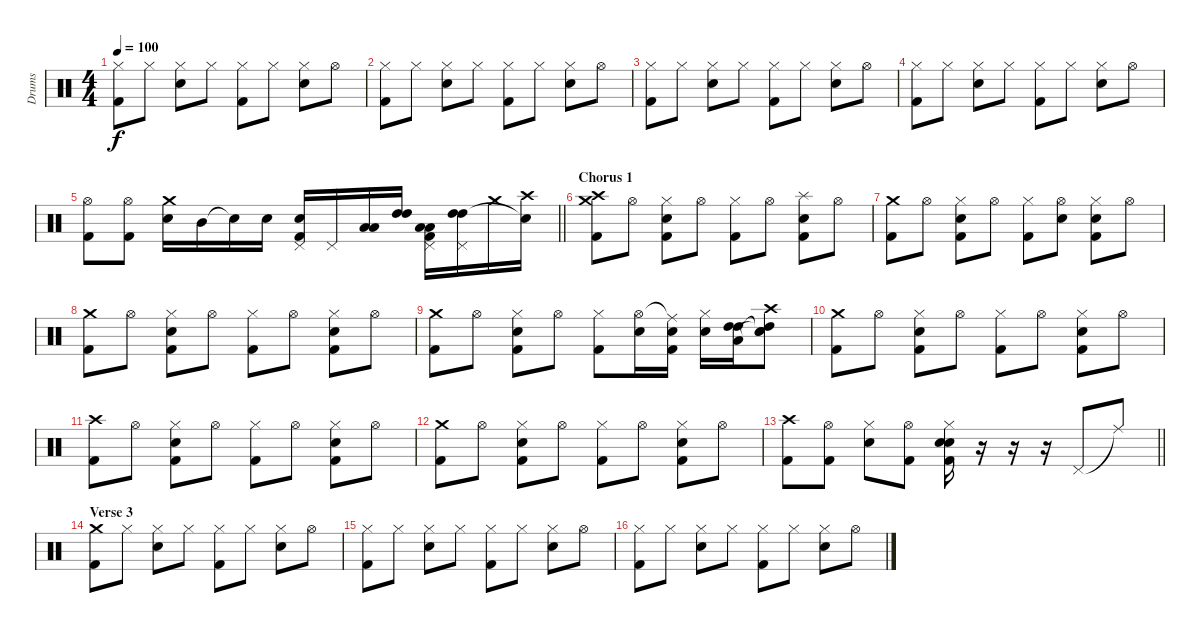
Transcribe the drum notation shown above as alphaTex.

\track ("Drums" "Drums") {instrument percussion}
\staff {score}
\articulation defaults
\ts (4 4)
\tempo 100
\clef neutral
\ks c
("Hi-Hat (closed)" "Kick (hit) 2").8{dy f} "Hi-Hat (closed)".8 ("Hi-Hat (closed)" "Electric Snare (hit)").8 "Hi-Hat (closed)".8 ("Hi-Hat (closed)" "Kick (hit) 2").8 "Hi-Hat (closed)".8 ("Hi-Hat (closed)" "Electric Snare (hit)").8 "Hi-Hat (open)".8 |
("Hi-Hat (closed)" "Kick (hit) 2").8 "Hi-Hat (closed)".8 ("Hi-Hat (closed)" "Electric Snare (hit)").8 "Hi-Hat (closed)".8 ("Hi-Hat (closed)" "Kick (hit) 2").8 "Hi-Hat (closed)".8 ("Hi-Hat (closed)" "Electric Snare (hit)").8 "Hi-Hat (open)".8 |
("Hi-Hat (closed)" "Kick (hit) 2").8 "Hi-Hat (closed)".8 ("Hi-Hat (closed)" "Electric Snare (hit)").8 "Hi-Hat (closed)".8 ("Hi-Hat (closed)" "Kick (hit) 2").8 "Hi-Hat (closed)".8 ("Hi-Hat (closed)" "Electric Snare (hit)").8 "Hi-Hat (open)".8 |
("Hi-Hat (closed)" "Kick (hit) 2").8 "Hi-Hat (closed)".8 ("Hi-Hat (closed)" "Electric Snare (hit)").8 "Hi-Hat (closed)".8 ("Hi-Hat (closed)" "Kick (hit) 2").8 "Hi-Hat (closed)".8 ("Hi-Hat (closed)" "Electric Snare (hit)").8 "Hi-Hat (open)".8 |
\barLineRight lightlight
("Hi-Hat (open)" "Kick (hit) 2").8 ("Hi-Hat (open)" "Kick (hit) 2").8 ("Crash medium (hit)" "Electric Snare (hit)").16 "Mid Tom (hit)".16 "Snare (hit)"{t}.16 "Electric Snare (hit)".16 ("Pedal Hi-Hat (hit)" "Electric Snare (hit)" "Kick (hit) 2").16 "Pedal Hi-Hat (hit)".16 ("Low Floor Tom (hit)" "Low Floor Tom (hit)").16 ("High Tom (hit)" "High Tom (hit)").16 ("Pedal Hi-Hat (hit)" "Low Floor Tom (hit)" "Low Floor Tom (hit)" "Kick (hit) 2").16 ("Pedal Hi-Hat (hit)" "High Tom (hit)" "High Tom (hit)").16 "Crash medium (hit)".16 ("Crash high (hit)" "Snare (hit)"{t}).16 |
\section ("" "Chorus 1")
("Crash medium (hit)" "Crash high (hit)" "Kick (hit) 2").8 "Hi-Hat (open)".8 ("Hi-Hat (closed)" "Electric Snare (hit)" "Kick (hit) 2").8 "Hi-Hat (open)".8 ("Hi-Hat (closed)" "Kick (hit) 2").8 "Hi-Hat (open)".8 ("Splash (hit)" "Electric Snare (hit)" "Kick (hit) 2").8 "Hi-Hat (open)".8 |
("Crash medium (hit)" "Kick (hit) 2").8 "Hi-Hat (open)".8 ("Hi-Hat (closed)" "Electric Snare (hit)" "Kick (hit) 2").8 "Hi-Hat (open)".8 ("Hi-Hat (closed)" "Kick (hit) 2").8 ("Hi-Hat (open)" "Electric Snare (hit)").8 ("Hi-Hat (closed)" "Electric Snare (hit)" "Kick (hit) 2").8 "Hi-Hat (open)".8 |
("Crash medium (hit)" "Kick (hit) 2").8 "Hi-Hat (open)".8 ("Hi-Hat (closed)" "Electric Snare (hit)" "Kick (hit) 2").8 "Hi-Hat (open)".8 ("Hi-Hat (closed)" "Kick (hit) 2").8 "Hi-Hat (open)".8 ("Hi-Hat (closed)" "Electric Snare (hit)" "Kick (hit) 2").8 "Hi-Hat (open)".8 |
("Crash medium (hit)" "Kick (hit) 2").8 "Hi-Hat (open)".8 ("Hi-Hat (closed)" "Electric Snare (hit)" "Kick (hit) 2").8 "Hi-Hat (open)".8 ("Hi-Hat (closed)" "Kick (hit) 2").8 ("Hi-Hat (open)" "Electric Snare (hit)").16 ("Ride (middle)"{t} "Electric Snare (hit)" "Kick (hit) 2").16 ("Hi-Hat (closed)" "Electric Snare (hit)").16 ("High Tom (hit)" "High Tom (hit)" "Low Floor Tom (hit)").16 ("Crash high (hit)" "Snare (hit)"{t} "High Tom (hit)"{t} "Snare (hit)").8 |
("Crash medium (hit)" "Kick (hit) 2").8 "Hi-Hat (open)".8 ("Hi-Hat (closed)" "Electric Snare (hit)" "Kick (hit) 2").8 "Hi-Hat (open)".8 ("Hi-Hat (closed)" "Kick (hit) 2").8 "Hi-Hat (open)".8 ("Hi-Hat (closed)" "Electric Snare (hit)" "Kick (hit) 2").8 "Hi-Hat (open)".8 |
("Crash high (hit)" "Kick (hit) 2").8 "Hi-Hat (open)".8 ("Hi-Hat (closed)" "Electric Snare (hit)" "Kick (hit) 2").8 "Hi-Hat (open)".8 ("Hi-Hat (closed)" "Kick (hit) 2").8 "Hi-Hat (open)".8 ("Hi-Hat (closed)" "Electric Snare (hit)" "Kick (hit) 2").8 "Hi-Hat (open)".8 |
("Crash medium (hit)" "Kick (hit) 2").8 "Hi-Hat (open)".8 ("Hi-Hat (closed)" "Electric Snare (hit)" "Kick (hit) 2").8 "Hi-Hat (open)".8 ("Hi-Hat (closed)" "Kick (hit) 2").8 "Hi-Hat (open)".8 ("Hi-Hat (closed)" "Electric Snare (hit)" "Kick (hit) 2").8 "Hi-Hat (open)".8 |
\barLineRight lightlight
("Crash high (hit)" "Kick (hit) 2").8 ("Hi-Hat (open)" "Kick (hit) 2").8 ("Hi-Hat (closed)" "Electric Snare (hit)").8 ("Hi-Hat (open)" "Kick (hit) 2").8 ("Hi-Hat (closed)" "Electric Snare (hit)" "Electric Snare (hit)" "Kick (hit) 2").16 r.16 r.16 r.16 "Pedal Hi-Hat (hit)".8 "Ride (middle)"{t}.8 |
\section ("" "Verse 3")
("Crash medium (hit)" "Kick (hit) 2").8 "Hi-Hat (closed)".8 ("Hi-Hat (closed)" "Electric Snare (hit)").8 "Hi-Hat (closed)".8 ("Hi-Hat (closed)" "Kick (hit) 2").8 "Hi-Hat (closed)".8 ("Hi-Hat (closed)" "Electric Snare (hit)").8 "Hi-Hat (open)".8 |
("Hi-Hat (closed)" "Kick (hit) 2").8 "Hi-Hat (closed)".8 ("Hi-Hat (closed)" "Electric Snare (hit)").8 "Hi-Hat (closed)".8 ("Hi-Hat (closed)" "Kick (hit) 2").8 "Hi-Hat (closed)".8 ("Hi-Hat (closed)" "Electric Snare (hit)").8 "Hi-Hat (open)".8 |
("Hi-Hat (closed)" "Kick (hit) 2").8 "Hi-Hat (closed)".8 ("Hi-Hat (closed)" "Electric Snare (hit)").8 "Hi-Hat (closed)".8 ("Hi-Hat (closed)" "Kick (hit) 2").8 "Hi-Hat (closed)".8 ("Hi-Hat (closed)" "Electric Snare (hit)").8 "Hi-Hat (open)".8
